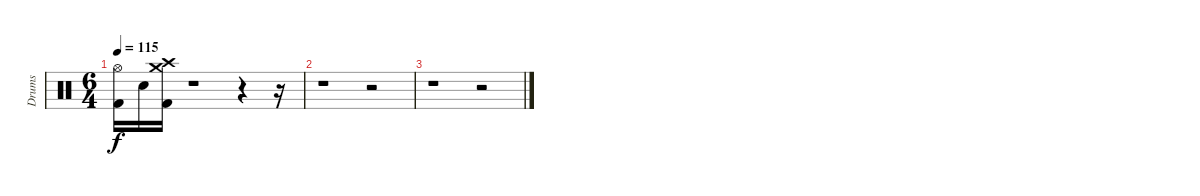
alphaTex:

\track ("Drums" "Drums") {instrument percussion}
\staff {score}
\articulation defaults
\ts (6 4)
\tempo 115
\clef neutral
\ks c
("Hi-Hat (open)" "Kick (hit) 2").16{dy f} "Snare (hit) 2".16 ("Crash medium (hit)" "Crash high (hit)" "Kick (hit) 2").16 r.1 r.4 r.16 |
r.1 r.2 |
r.1 r.2
